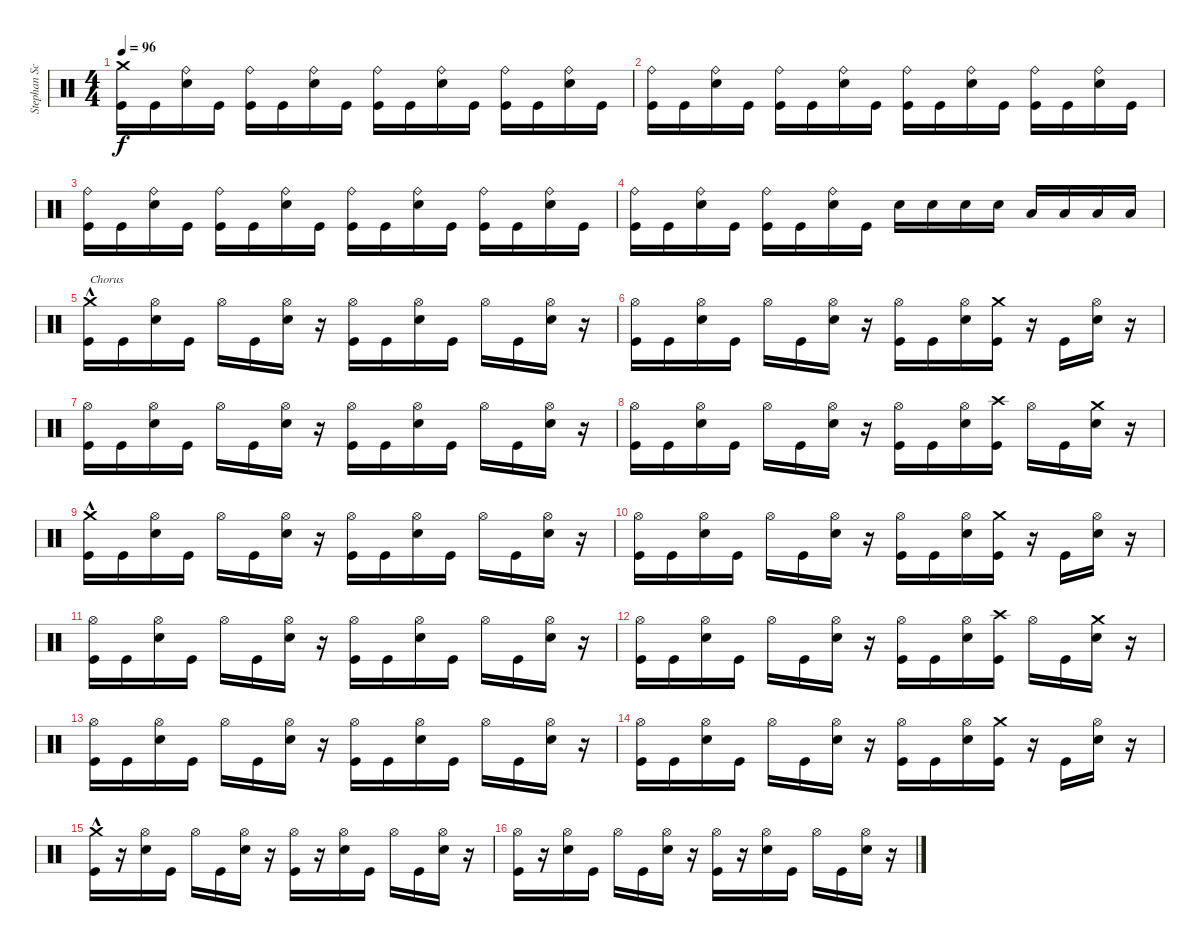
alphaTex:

\track ("Stephan Schwarzmann" "Stephan Sc") {instrument percussion}
\staff {score}
\articulation defaults
\ts (4 4)
\tempo 96
\clef neutral
\ks c
("Kick (hit)" "Crash medium (hit)").16{dy f} "Kick (hit)".16 ("Snare (hit) 2" "Ride (bell)").16 "Kick (hit)".16 ("Kick (hit)" "Ride (bell)").16 "Kick (hit)".16 ("Snare (hit) 2" "Ride (bell)").16 "Kick (hit)".16 ("Kick (hit)" "Ride (bell)").16 "Kick (hit)".16 ("Snare (hit) 2" "Ride (bell)").16 "Kick (hit)".16 ("Kick (hit)" "Ride (bell)").16 "Kick (hit)".16 ("Snare (hit) 2" "Ride (bell)").16 "Kick (hit)".16 |
("Kick (hit)" "Ride (bell)").16 "Kick (hit)".16 ("Snare (hit) 2" "Ride (bell)").16 "Kick (hit)".16 ("Kick (hit)" "Ride (bell)").16 "Kick (hit)".16 ("Snare (hit) 2" "Ride (bell)").16 "Kick (hit)".16 ("Kick (hit)" "Ride (bell)").16 "Kick (hit)".16 ("Snare (hit) 2" "Ride (bell)").16 "Kick (hit)".16 ("Kick (hit)" "Ride (bell)").16 "Kick (hit)".16 ("Snare (hit) 2" "Ride (bell)").16 "Kick (hit)".16 |
("Kick (hit)" "Ride (bell)").16 "Kick (hit)".16 ("Snare (hit) 2" "Ride (bell)").16 "Kick (hit)".16 ("Kick (hit)" "Ride (bell)").16 "Kick (hit)".16 ("Snare (hit) 2" "Ride (bell)").16 "Kick (hit)".16 ("Kick (hit)" "Ride (bell)").16 "Kick (hit)".16 ("Snare (hit) 2" "Ride (bell)").16 "Kick (hit)".16 ("Kick (hit)" "Ride (bell)").16 "Kick (hit)".16 ("Snare (hit) 2" "Ride (bell)").16 "Kick (hit)".16 |
("Kick (hit)" "Ride (bell)").16 "Kick (hit)".16 ("Snare (hit) 2" "Ride (bell)").16 "Kick (hit)".16 ("Kick (hit)" "Ride (bell)").16 "Kick (hit)".16 ("Snare (hit) 2" "Ride (bell)").16 "Kick (hit)".16 "Snare (hit) 2".16 "Snare (hit) 2".16 "Snare (hit) 2".16 "Snare (hit) 2".16 "Low Tom (hit)".16 "Low Tom (hit)".16 "Low Floor Tom (hit)".16 "Low Floor Tom (hit)".16 |
("Kick (hit)" "Crash medium (hit)"{hac}).16{txt "Chorus"} "Kick (hit)".16 ("Snare (hit) 2" "Hi-Hat (open)").16 "Kick (hit)".16 "Hi-Hat (open)".16 "Kick (hit)".16 ("Hi-Hat (open)" "Snare (hit) 2").16 r.16 ("Hi-Hat (open)" "Kick (hit)").16 "Kick (hit)".16 ("Snare (hit) 2" "Hi-Hat (open)").16 "Kick (hit)".16 "Hi-Hat (open)".16 "Kick (hit)".16 ("Hi-Hat (open)" "Snare (hit) 2").16 r.16 |
("Kick (hit)" "Hi-Hat (open)").16 "Kick (hit)".16 ("Snare (hit) 2" "Hi-Hat (open)").16 "Kick (hit)".16 "Hi-Hat (open)".16 "Kick (hit)".16 ("Hi-Hat (open)" "Snare (hit) 2").16 r.16 ("Hi-Hat (open)" "Kick (hit)").16 "Kick (hit)".16 ("Snare (hit) 2" "Hi-Hat (open)").16 ("Kick (hit)" "Crash medium (hit)").16 r.16 "Kick (hit)".16 ("Hi-Hat (open)" "Snare (hit) 2").16 r.16 |
("Kick (hit)" "Hi-Hat (open)").16 "Kick (hit)".16 ("Snare (hit) 2" "Hi-Hat (open)").16 "Kick (hit)".16 "Hi-Hat (open)".16 "Kick (hit)".16 ("Hi-Hat (open)" "Snare (hit) 2").16 r.16 ("Hi-Hat (open)" "Kick (hit)").16 "Kick (hit)".16 ("Snare (hit) 2" "Hi-Hat (open)").16 "Kick (hit)".16 "Hi-Hat (open)".16 "Kick (hit)".16 ("Hi-Hat (open)" "Snare (hit) 2").16 r.16 |
("Kick (hit)" "Hi-Hat (open)").16 "Kick (hit)".16 ("Snare (hit) 2" "Hi-Hat (open)").16 "Kick (hit)".16 "Hi-Hat (open)".16 "Kick (hit)".16 ("Hi-Hat (open)" "Snare (hit) 2").16 r.16 ("Hi-Hat (open)" "Kick (hit)").16 "Kick (hit)".16 ("Snare (hit) 2" "Hi-Hat (open)").16 ("Kick (hit)" "Crash high (hit)").16 "Hi-Hat (open)".16 "Kick (hit)".16 ("Snare (hit) 2" "Crash medium (hit)").16 r.16 |
("Kick (hit)" "Crash medium (hit)"{hac}).16 "Kick (hit)".16 ("Snare (hit) 2" "Hi-Hat (open)").16 "Kick (hit)".16 "Hi-Hat (open)".16 "Kick (hit)".16 ("Hi-Hat (open)" "Snare (hit) 2").16 r.16 ("Hi-Hat (open)" "Kick (hit)").16 "Kick (hit)".16 ("Snare (hit) 2" "Hi-Hat (open)").16 "Kick (hit)".16 "Hi-Hat (open)".16 "Kick (hit)".16 ("Hi-Hat (open)" "Snare (hit) 2").16 r.16 |
("Kick (hit)" "Hi-Hat (open)").16 "Kick (hit)".16 ("Snare (hit) 2" "Hi-Hat (open)").16 "Kick (hit)".16 "Hi-Hat (open)".16 "Kick (hit)".16 ("Hi-Hat (open)" "Snare (hit) 2").16 r.16 ("Hi-Hat (open)" "Kick (hit)").16 "Kick (hit)".16 ("Snare (hit) 2" "Hi-Hat (open)").16 ("Kick (hit)" "Crash medium (hit)").16 r.16 "Kick (hit)".16 ("Hi-Hat (open)" "Snare (hit) 2").16 r.16 |
("Kick (hit)" "Hi-Hat (open)").16 "Kick (hit)".16 ("Snare (hit) 2" "Hi-Hat (open)").16 "Kick (hit)".16 "Hi-Hat (open)".16 "Kick (hit)".16 ("Hi-Hat (open)" "Snare (hit) 2").16 r.16 ("Hi-Hat (open)" "Kick (hit)").16 "Kick (hit)".16 ("Snare (hit) 2" "Hi-Hat (open)").16 "Kick (hit)".16 "Hi-Hat (open)".16 "Kick (hit)".16 ("Hi-Hat (open)" "Snare (hit) 2").16 r.16 |
("Kick (hit)" "Hi-Hat (open)").16 "Kick (hit)".16 ("Snare (hit) 2" "Hi-Hat (open)").16 "Kick (hit)".16 "Hi-Hat (open)".16 "Kick (hit)".16 ("Hi-Hat (open)" "Snare (hit) 2").16 r.16 ("Hi-Hat (open)" "Kick (hit)").16 "Kick (hit)".16 ("Snare (hit) 2" "Hi-Hat (open)").16 ("Kick (hit)" "Crash high (hit)").16 "Hi-Hat (open)".16 "Kick (hit)".16 ("Snare (hit) 2" "Crash medium (hit)").16 r.16 |
("Kick (hit)" "Hi-Hat (open)").16 "Kick (hit)".16 ("Snare (hit) 2" "Hi-Hat (open)").16 "Kick (hit)".16 "Hi-Hat (open)".16 "Kick (hit)".16 ("Hi-Hat (open)" "Snare (hit) 2").16 r.16 ("Hi-Hat (open)" "Kick (hit)").16 "Kick (hit)".16 ("Snare (hit) 2" "Hi-Hat (open)").16 "Kick (hit)".16 "Hi-Hat (open)".16 "Kick (hit)".16 ("Hi-Hat (open)" "Snare (hit) 2").16 r.16 |
("Kick (hit)" "Hi-Hat (open)").16 "Kick (hit)".16 ("Snare (hit) 2" "Hi-Hat (open)").16 "Kick (hit)".16 "Hi-Hat (open)".16 "Kick (hit)".16 ("Hi-Hat (open)" "Snare (hit) 2").16 r.16 ("Hi-Hat (open)" "Kick (hit)").16 "Kick (hit)".16 ("Snare (hit) 2" "Hi-Hat (open)").16 ("Kick (hit)" "Crash medium (hit)").16 r.16 "Kick (hit)".16 ("Hi-Hat (open)" "Snare (hit) 2").16 r.16 |
("Kick (hit)" "Crash medium (hit)"{hac}).16 r.16 ("Snare (hit) 2" "Hi-Hat (open)").16 "Kick (hit)".16 "Hi-Hat (open)".16 "Kick (hit)".16 ("Snare (hit) 2" "Hi-Hat (open)").16 r.16 ("Kick (hit)" "Hi-Hat (open)").16 r.16 ("Snare (hit) 2" "Hi-Hat (open)").16 "Kick (hit)".16 "Hi-Hat (open)".16 "Kick (hit)".16 ("Snare (hit) 2" "Hi-Hat (open)").16 r.16 |
("Kick (hit)" "Hi-Hat (open)").16 r.16 ("Snare (hit) 2" "Hi-Hat (open)").16 "Kick (hit)".16 "Hi-Hat (open)".16 "Kick (hit)".16 ("Snare (hit) 2" "Hi-Hat (open)").16 r.16 ("Kick (hit)" "Hi-Hat (open)").16 r.16 ("Snare (hit) 2" "Hi-Hat (open)").16 "Kick (hit)".16 "Hi-Hat (open)".16 "Kick (hit)".16 ("Snare (hit) 2" "Hi-Hat (open)").16 r.16
